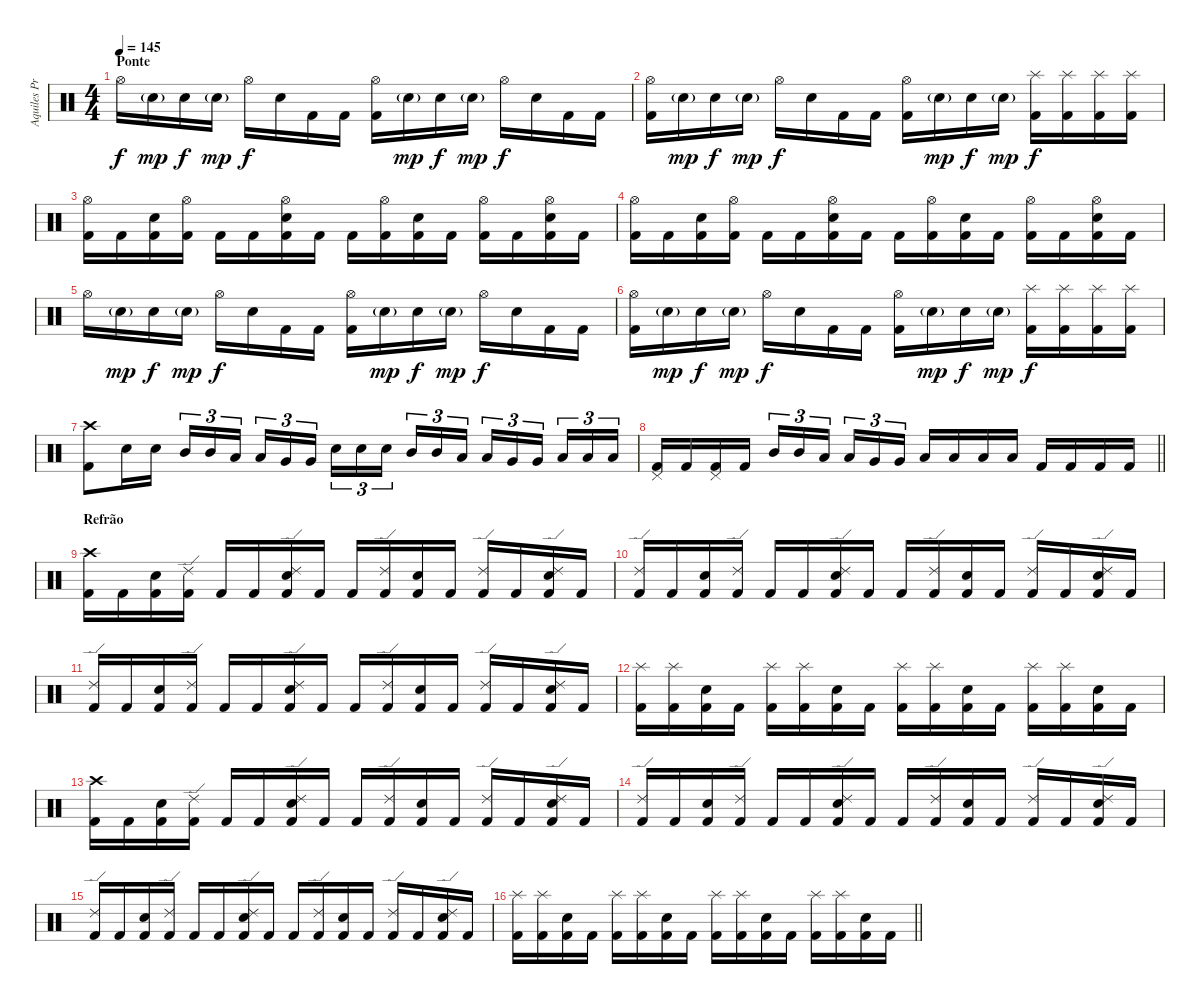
\track ("Aquiles Priester" "Aquiles Pr") {instrument percussion}
\staff {score}
\articulation defaults
\ts (4 4)
\section ("" "Ponte")
\tempo 145
\clef neutral
\ks c "Hi-Hat (open)".16{dy f} "Electric Snare (hit)"{g}.16{dy mp} "Electric Snare (hit)".16{dy f} "Electric Snare (hit)"{g}.16{dy mp} "Hi-Hat (open)".16{dy f} "Electric Snare (hit)".16 "Kick (hit) 2".16 "Kick (hit) 2".16
("Hi-Hat (open)" "Kick (hit) 2").16 "Electric Snare (hit)"{g}.16{dy mp} "Electric Snare (hit)".16{dy f} "Electric Snare (hit)"{g}.16{dy mp} "Hi-Hat (open)".16{dy f} "Electric Snare (hit)".16 "Kick (hit) 2".16 "Kick (hit) 2".16 |
("Hi-Hat (open)" "Kick (hit) 2").16 "Electric Snare (hit)"{g}.16{dy mp} "Electric Snare (hit)".16{dy f} "Electric Snare (hit)"{g}.16{dy mp} "Hi-Hat (open)".16{dy f} "Electric Snare (hit)".16 "Kick (hit) 2".16 "Kick (hit) 2".16 ("Hi-Hat (open)" "Kick (hit) 2").16 "Electric Snare (hit)"{g}.16{dy mp} "Electric Snare (hit)".16{dy f} "Electric Snare (hit)"{g}.16{dy mp} ("Splash (hit)" "Kick (hit) 2").16{dy f} ("Splash (hit)" "Kick (hit) 2").16 ("Splash (hit)" "Kick (hit) 2").16 ("Splash (hit)" "Kick (hit) 2").16 |
("Hi-Hat (open)" "Kick (hit) 2").16 "Kick (hit) 2".16 ("Electric Snare (hit)" "Kick (hit) 2").16 ("Hi-Hat (open)" "Kick (hit) 2").16 "Kick (hit) 2".16 "Kick (hit) 2".16 ("Hi-Hat (open)" "Electric Snare (hit)" "Kick (hit) 2").16 "Kick (hit) 2".16 "Kick (hit) 2".16 ("Hi-Hat (open)" "Kick (hit) 2").16 ("Electric Snare (hit)" "Kick (hit) 2").16 "Kick (hit) 2".16 ("Hi-Hat (open)" "Kick (hit) 2").16 "Kick (hit) 2".16 ("Hi-Hat (open)" "Electric Snare (hit)" "Kick (hit) 2").16 "Kick (hit) 2".16 |
("Hi-Hat (open)" "Kick (hit) 2").16 "Kick (hit) 2".16 ("Electric Snare (hit)" "Kick (hit) 2").16 ("Hi-Hat (open)" "Kick (hit) 2").16 "Kick (hit) 2".16 "Kick (hit) 2".16 ("Hi-Hat (open)" "Electric Snare (hit)" "Kick (hit) 2").16 "Kick (hit) 2".16 "Kick (hit) 2".16 ("Hi-Hat (open)" "Kick (hit) 2").16 ("Electric Snare (hit)" "Kick (hit) 2").16 "Kick (hit) 2".16 ("Hi-Hat (open)" "Kick (hit) 2").16 "Kick (hit) 2".16 ("Hi-Hat (open)" "Electric Snare (hit)" "Kick (hit) 2").16 "Kick (hit) 2".16 |
"Hi-Hat (open)".16 "Electric Snare (hit)"{g}.16{dy mp} "Electric Snare (hit)".16{dy f} "Electric Snare (hit)"{g}.16{dy mp} "Hi-Hat (open)".16{dy f} "Electric Snare (hit)".16 "Kick (hit) 2".16 "Kick (hit) 2".16 ("Hi-Hat (open)" "Kick (hit) 2").16 "Electric Snare (hit)"{g}.16{dy mp} "Electric Snare (hit)".16{dy f} "Electric Snare (hit)"{g}.16{dy mp} "Hi-Hat (open)".16{dy f} "Electric Snare (hit)".16 "Kick (hit) 2".16 "Kick (hit) 2".16 |
("Hi-Hat (open)" "Kick (hit) 2").16 "Electric Snare (hit)"{g}.16{dy mp} "Electric Snare (hit)".16{dy f} "Electric Snare (hit)"{g}.16{dy mp} "Hi-Hat (open)".16{dy f} "Electric Snare (hit)".16 "Kick (hit) 2".16 "Kick (hit) 2".16 ("Hi-Hat (open)" "Kick (hit) 2").16 "Electric Snare (hit)"{g}.16{dy mp} "Electric Snare (hit)".16{dy f} "Electric Snare (hit)"{g}.16{dy mp} ("Splash (hit)" "Kick (hit) 2").16{dy f} ("Splash (hit)" "Kick (hit) 2").16 ("Splash (hit)" "Kick (hit) 2").16 ("Splash (hit)" "Kick (hit) 2").16 |
("Crash high (hit)" "Kick (hit) 2").8 "Electric Snare (hit)".16 "Electric Snare (hit)".16 "Mid Tom (hit)".16{tu (3 2)} "Mid Tom (hit)".16{tu (3 2)} "Low Tom (hit)".16{tu (3 2) beam splitsecondary} "Low Tom (hit)".16{tu (3 2)} "Very Low Tom (hit)".16{tu (3 2)} "Very Low Tom (hit)".16{tu (3 2)} "Electric Snare (hit)".16{tu (3 2)} "Electric Snare (hit)".16{tu (3 2)} "Electric Snare (hit)".16{tu (3 2) beam splitsecondary} "Mid Tom (hit)".16{tu (3 2)} "Mid Tom (hit)".16{tu (3 2)} "Low Tom (hit)".16{tu (3 2)} "Low Tom (hit)".16{tu (3 2)} "Very Low Tom (hit)".16{tu (3 2)} "Very Low Tom (hit)".16{tu (3 2) beam splitsecondary} "Low Floor Tom (hit)".16{tu (3 2)} "Low Floor Tom (hit)".16{tu (3 2)} "Low Floor Tom (hit)".16{tu (3 2)} |
\barLineRight lightlight
("Pedal Hi-Hat (hit)" "Kick (hit) 2").16 "Kick (hit) 2".16 ("Pedal Hi-Hat (hit)" "Kick (hit) 2").16 "Kick (hit) 2".16 "Mid Tom (hit)".16{tu (3 2)} "Mid Tom (hit)".16{tu (3 2)} "Low Tom (hit)".16{tu (3 2) beam splitsecondary} "Low Tom (hit)".16{tu (3 2)} "Very Low Tom (hit)".16{tu (3 2)} "Very Low Tom (hit)".16{tu (3 2)} "Low Floor Tom (hit)".16 "Low Floor Tom (hit)".16 "Low Floor Tom (hit)".16 "Low Floor Tom (hit)".16 "Kick (hit) 2".16 "Kick (hit) 2".16 "Kick (hit) 2".16 "Kick (hit) 2".16 |
\section ("" "Refrão")
("Crash high (hit)" "Kick (hit) 2").16 "Kick (hit) 2".16 ("Electric Snare (hit)" "Kick (hit) 2").16 ("Ride (edge) 2" "Kick (hit) 2").16 "Kick (hit) 2".16 "Kick (hit) 2".16 ("Ride (edge) 2" "Electric Snare (hit)" "Kick (hit) 2").16 "Kick (hit) 2".16 "Kick (hit) 2".16 ("Ride (edge) 2" "Kick (hit) 2").16 ("Electric Snare (hit)" "Kick (hit) 2").16 "Kick (hit) 2".16 ("Ride (edge) 2" "Kick (hit) 2").16 "Kick (hit) 2".16 ("Ride (edge) 2" "Electric Snare (hit)" "Kick (hit) 2").16 "Kick (hit) 2".16 |
("Ride (edge) 2" "Kick (hit) 2").16 "Kick (hit) 2".16 ("Electric Snare (hit)" "Kick (hit) 2").16 ("Ride (edge) 2" "Kick (hit) 2").16 "Kick (hit) 2".16 "Kick (hit) 2".16 ("Ride (edge) 2" "Electric Snare (hit)" "Kick (hit) 2").16 "Kick (hit) 2".16 "Kick (hit) 2".16 ("Ride (edge) 2" "Kick (hit) 2").16 ("Electric Snare (hit)" "Kick (hit) 2").16 "Kick (hit) 2".16 ("Ride (edge) 2" "Kick (hit) 2").16 "Kick (hit) 2".16 ("Ride (edge) 2" "Electric Snare (hit)" "Kick (hit) 2").16 "Kick (hit) 2".16 |
("Ride (edge) 2" "Kick (hit) 2").16 "Kick (hit) 2".16 ("Electric Snare (hit)" "Kick (hit) 2").16 ("Ride (edge) 2" "Kick (hit) 2").16 "Kick (hit) 2".16 "Kick (hit) 2".16 ("Ride (edge) 2" "Electric Snare (hit)" "Kick (hit) 2").16 "Kick (hit) 2".16 "Kick (hit) 2".16 ("Ride (edge) 2" "Kick (hit) 2").16 ("Electric Snare (hit)" "Kick (hit) 2").16 "Kick (hit) 2".16 ("Ride (edge) 2" "Kick (hit) 2").16 "Kick (hit) 2".16 ("Ride (edge) 2" "Electric Snare (hit)" "Kick (hit) 2").16 "Kick (hit) 2".16 |
("Splash (hit)" "Kick (hit) 2").16 ("Splash (hit)" "Kick (hit) 2").16 ("Electric Snare (hit)" "Kick (hit) 2").16 "Kick (hit) 2".16 ("Splash (hit)" "Kick (hit) 2").16 ("Splash (hit)" "Kick (hit) 2").16 ("Electric Snare (hit)" "Kick (hit) 2").16 "Kick (hit) 2".16 ("Splash (hit)" "Kick (hit) 2").16 ("Splash (hit)" "Kick (hit) 2").16 ("Electric Snare (hit)" "Kick (hit) 2").16 "Kick (hit) 2".16 ("Splash (hit)" "Kick (hit) 2").16 ("Splash (hit)" "Kick (hit) 2").16 ("Electric Snare (hit)" "Kick (hit) 2").16 "Kick (hit) 2".16 |
("Crash high (hit)" "Kick (hit) 2").16 "Kick (hit) 2".16 ("Electric Snare (hit)" "Kick (hit) 2").16 ("Ride (edge) 2" "Kick (hit) 2").16 "Kick (hit) 2".16 "Kick (hit) 2".16 ("Ride (edge) 2" "Electric Snare (hit)" "Kick (hit) 2").16 "Kick (hit) 2".16 "Kick (hit) 2".16 ("Ride (edge) 2" "Kick (hit) 2").16 ("Electric Snare (hit)" "Kick (hit) 2").16 "Kick (hit) 2".16 ("Ride (edge) 2" "Kick (hit) 2").16 "Kick (hit) 2".16 ("Ride (edge) 2" "Electric Snare (hit)" "Kick (hit) 2").16 "Kick (hit) 2".16 |
("Ride (edge) 2" "Kick (hit) 2").16 "Kick (hit) 2".16 ("Electric Snare (hit)" "Kick (hit) 2").16 ("Ride (edge) 2" "Kick (hit) 2").16 "Kick (hit) 2".16 "Kick (hit) 2".16 ("Ride (edge) 2" "Electric Snare (hit)" "Kick (hit) 2").16 "Kick (hit) 2".16 "Kick (hit) 2".16 ("Ride (edge) 2" "Kick (hit) 2").16 ("Electric Snare (hit)" "Kick (hit) 2").16 "Kick (hit) 2".16 ("Ride (edge) 2" "Kick (hit) 2").16 "Kick (hit) 2".16 ("Ride (edge) 2" "Electric Snare (hit)" "Kick (hit) 2").16 "Kick (hit) 2".16 |
("Ride (edge) 2" "Kick (hit) 2").16 "Kick (hit) 2".16 ("Electric Snare (hit)" "Kick (hit) 2").16 ("Ride (edge) 2" "Kick (hit) 2").16 "Kick (hit) 2".16 "Kick (hit) 2".16 ("Ride (edge) 2" "Electric Snare (hit)" "Kick (hit) 2").16 "Kick (hit) 2".16 "Kick (hit) 2".16 ("Ride (edge) 2" "Kick (hit) 2").16 ("Electric Snare (hit)" "Kick (hit) 2").16 "Kick (hit) 2".16 ("Ride (edge) 2" "Kick (hit) 2").16 "Kick (hit) 2".16 ("Ride (edge) 2" "Electric Snare (hit)" "Kick (hit) 2").16 "Kick (hit) 2".16 |
\barLineRight lightlight
("Splash (hit)" "Kick (hit) 2").16 ("Splash (hit)" "Kick (hit) 2").16 ("Electric Snare (hit)" "Kick (hit) 2").16 "Kick (hit) 2".16 ("Splash (hit)" "Kick (hit) 2").16 ("Splash (hit)" "Kick (hit) 2").16 ("Electric Snare (hit)" "Kick (hit) 2").16 "Kick (hit) 2".16 ("Splash (hit)" "Kick (hit) 2").16 ("Splash (hit)" "Kick (hit) 2").16 ("Electric Snare (hit)" "Kick (hit) 2").16 "Kick (hit) 2".16 ("Splash (hit)" "Kick (hit) 2").16 ("Splash (hit)" "Kick (hit) 2").16 ("Electric Snare (hit)" "Kick (hit) 2").16 "Kick (hit) 2".16
